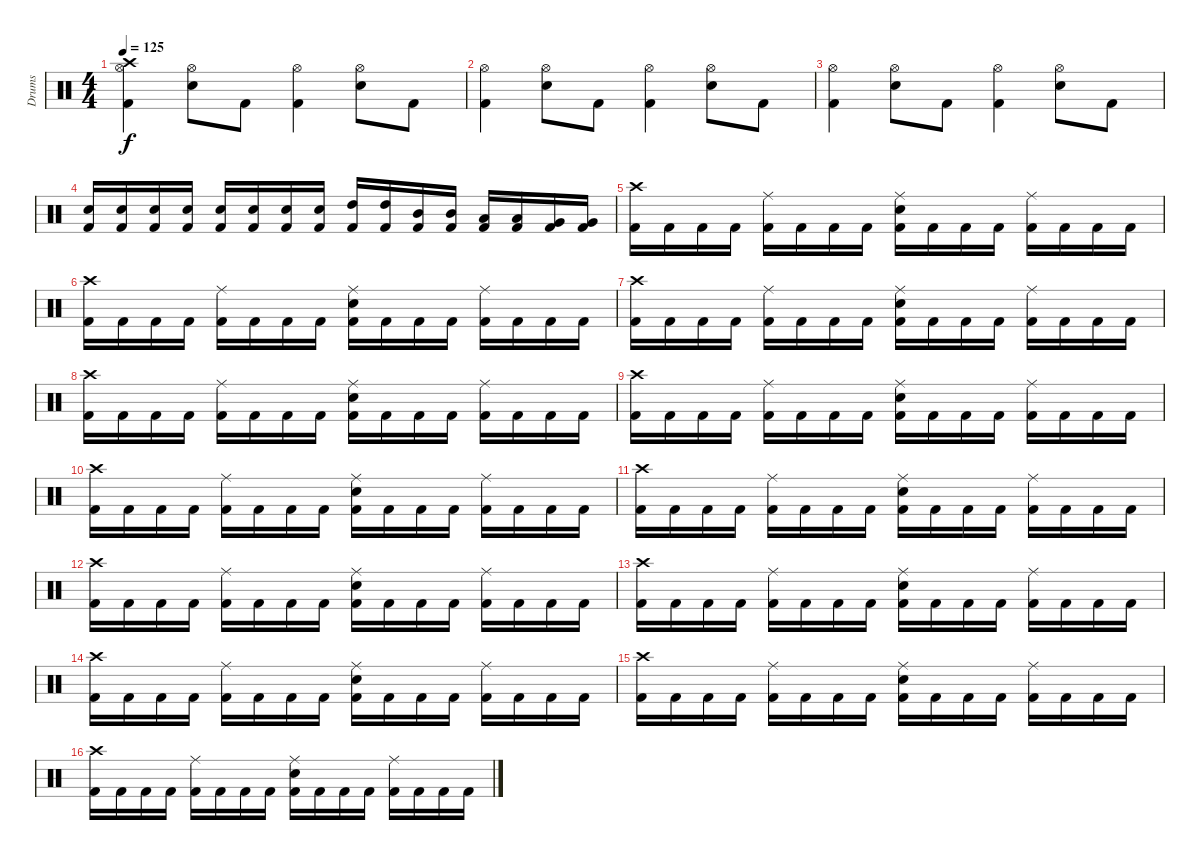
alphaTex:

\track ("Drums" "Drums") {instrument percussion}
\staff {score}
\articulation defaults
\ts (4 4)
\tempo 125
\clef neutral
\ks c
("Crash high (hit)" "Hi-Hat (open)" "Kick (hit) 2").4{dy f} ("Hi-Hat (open)" "Snare (hit) 2").8 "Kick (hit) 2".8 ("Hi-Hat (open)" "Kick (hit) 2").4 ("Hi-Hat (open)" "Snare (hit) 2").8 "Kick (hit) 2".8 |
("Hi-Hat (open)" "Kick (hit) 2").4 ("Hi-Hat (open)" "Snare (hit) 2").8 "Kick (hit) 2".8 ("Hi-Hat (open)" "Kick (hit) 2").4 ("Hi-Hat (open)" "Snare (hit) 2").8 "Kick (hit) 2".8 |
("Hi-Hat (open)" "Kick (hit) 2").4 ("Hi-Hat (open)" "Snare (hit) 2").8 "Kick (hit) 2".8 ("Hi-Hat (open)" "Kick (hit) 2").4 ("Hi-Hat (open)" "Snare (hit) 2").8 "Kick (hit) 2".8 |
("Snare (hit) 2" "Kick (hit) 2").16 ("Snare (hit) 2" "Kick (hit) 2").16 ("Snare (hit) 2" "Kick (hit) 2").16 ("Snare (hit) 2" "Kick (hit) 2").16 ("Snare (hit) 2" "Kick (hit) 2").16 ("Snare (hit) 2" "Kick (hit) 2").16 ("Snare (hit) 2" "Kick (hit) 2").16 ("Snare (hit) 2" "Kick (hit) 2").16 ("High Tom (hit)" "Kick (hit) 2").16 ("High Tom (hit)" "Kick (hit) 2").16 ("Mid Tom (hit)" "Kick (hit) 2").16 ("Mid Tom (hit)" "Kick (hit) 2").16 ("Low Tom (hit)" "Kick (hit) 2").16 ("Low Tom (hit)" "Kick (hit) 2").16 ("Very Low Tom (hit)" "Kick (hit) 2").16 ("Very Low Tom (hit)" "Kick (hit) 2").16 |
("Crash high (hit)" "Kick (hit) 2").16 "Kick (hit) 2".16 "Kick (hit) 2".16 "Kick (hit) 2".16 ("Ride (middle)" "Kick (hit) 2").16 "Kick (hit) 2".16 "Kick (hit) 2".16 "Kick (hit) 2".16 ("Ride (middle)" "Snare (hit) 2" "Kick (hit) 2").16 "Kick (hit) 2".16 "Kick (hit) 2".16 "Kick (hit) 2".16 ("Ride (middle)" "Kick (hit) 2").16 "Kick (hit) 2".16 "Kick (hit) 2".16 "Kick (hit) 2".16 |
("Crash high (hit)" "Kick (hit) 2").16 "Kick (hit) 2".16 "Kick (hit) 2".16 "Kick (hit) 2".16 ("Ride (middle)" "Kick (hit) 2").16 "Kick (hit) 2".16 "Kick (hit) 2".16 "Kick (hit) 2".16 ("Ride (middle)" "Snare (hit) 2" "Kick (hit) 2").16 "Kick (hit) 2".16 "Kick (hit) 2".16 "Kick (hit) 2".16 ("Ride (middle)" "Kick (hit) 2").16 "Kick (hit) 2".16 "Kick (hit) 2".16 "Kick (hit) 2".16 |
("Crash high (hit)" "Kick (hit) 2").16 "Kick (hit) 2".16 "Kick (hit) 2".16 "Kick (hit) 2".16 ("Ride (middle)" "Kick (hit) 2").16 "Kick (hit) 2".16 "Kick (hit) 2".16 "Kick (hit) 2".16 ("Ride (middle)" "Snare (hit) 2" "Kick (hit) 2").16 "Kick (hit) 2".16 "Kick (hit) 2".16 "Kick (hit) 2".16 ("Ride (middle)" "Kick (hit) 2").16 "Kick (hit) 2".16 "Kick (hit) 2".16 "Kick (hit) 2".16 |
("Crash high (hit)" "Kick (hit) 2").16 "Kick (hit) 2".16 "Kick (hit) 2".16 "Kick (hit) 2".16 ("Ride (middle)" "Kick (hit) 2").16 "Kick (hit) 2".16 "Kick (hit) 2".16 "Kick (hit) 2".16 ("Ride (middle)" "Snare (hit) 2" "Kick (hit) 2").16 "Kick (hit) 2".16 "Kick (hit) 2".16 "Kick (hit) 2".16 ("Ride (middle)" "Kick (hit) 2").16 "Kick (hit) 2".16 "Kick (hit) 2".16 "Kick (hit) 2".16 |
("Crash high (hit)" "Kick (hit) 2").16 "Kick (hit) 2".16 "Kick (hit) 2".16 "Kick (hit) 2".16 ("Ride (middle)" "Kick (hit) 2").16 "Kick (hit) 2".16 "Kick (hit) 2".16 "Kick (hit) 2".16 ("Ride (middle)" "Snare (hit) 2" "Kick (hit) 2").16 "Kick (hit) 2".16 "Kick (hit) 2".16 "Kick (hit) 2".16 ("Ride (middle)" "Kick (hit) 2").16 "Kick (hit) 2".16 "Kick (hit) 2".16 "Kick (hit) 2".16 |
("Crash high (hit)" "Kick (hit) 2").16 "Kick (hit) 2".16 "Kick (hit) 2".16 "Kick (hit) 2".16 ("Ride (middle)" "Kick (hit) 2").16 "Kick (hit) 2".16 "Kick (hit) 2".16 "Kick (hit) 2".16 ("Ride (middle)" "Snare (hit) 2" "Kick (hit) 2").16 "Kick (hit) 2".16 "Kick (hit) 2".16 "Kick (hit) 2".16 ("Ride (middle)" "Kick (hit) 2").16 "Kick (hit) 2".16 "Kick (hit) 2".16 "Kick (hit) 2".16 |
("Crash high (hit)" "Kick (hit) 2").16 "Kick (hit) 2".16 "Kick (hit) 2".16 "Kick (hit) 2".16 ("Ride (middle)" "Kick (hit) 2").16 "Kick (hit) 2".16 "Kick (hit) 2".16 "Kick (hit) 2".16 ("Ride (middle)" "Snare (hit) 2" "Kick (hit) 2").16 "Kick (hit) 2".16 "Kick (hit) 2".16 "Kick (hit) 2".16 ("Ride (middle)" "Kick (hit) 2").16 "Kick (hit) 2".16 "Kick (hit) 2".16 "Kick (hit) 2".16 |
("Crash high (hit)" "Kick (hit) 2").16 "Kick (hit) 2".16 "Kick (hit) 2".16 "Kick (hit) 2".16 ("Ride (middle)" "Kick (hit) 2").16 "Kick (hit) 2".16 "Kick (hit) 2".16 "Kick (hit) 2".16 ("Ride (middle)" "Snare (hit) 2" "Kick (hit) 2").16 "Kick (hit) 2".16 "Kick (hit) 2".16 "Kick (hit) 2".16 ("Ride (middle)" "Kick (hit) 2").16 "Kick (hit) 2".16 "Kick (hit) 2".16 "Kick (hit) 2".16 |
("Crash high (hit)" "Kick (hit) 2").16 "Kick (hit) 2".16 "Kick (hit) 2".16 "Kick (hit) 2".16 ("Ride (middle)" "Kick (hit) 2").16 "Kick (hit) 2".16 "Kick (hit) 2".16 "Kick (hit) 2".16 ("Ride (middle)" "Snare (hit) 2" "Kick (hit) 2").16 "Kick (hit) 2".16 "Kick (hit) 2".16 "Kick (hit) 2".16 ("Ride (middle)" "Kick (hit) 2").16 "Kick (hit) 2".16 "Kick (hit) 2".16 "Kick (hit) 2".16 |
("Crash high (hit)" "Kick (hit) 2").16 "Kick (hit) 2".16 "Kick (hit) 2".16 "Kick (hit) 2".16 ("Ride (middle)" "Kick (hit) 2").16 "Kick (hit) 2".16 "Kick (hit) 2".16 "Kick (hit) 2".16 ("Ride (middle)" "Snare (hit) 2" "Kick (hit) 2").16 "Kick (hit) 2".16 "Kick (hit) 2".16 "Kick (hit) 2".16 ("Ride (middle)" "Kick (hit) 2").16 "Kick (hit) 2".16 "Kick (hit) 2".16 "Kick (hit) 2".16 |
("Crash high (hit)" "Kick (hit) 2").16 "Kick (hit) 2".16 "Kick (hit) 2".16 "Kick (hit) 2".16 ("Ride (middle)" "Kick (hit) 2").16 "Kick (hit) 2".16 "Kick (hit) 2".16 "Kick (hit) 2".16 ("Ride (middle)" "Snare (hit) 2" "Kick (hit) 2").16 "Kick (hit) 2".16 "Kick (hit) 2".16 "Kick (hit) 2".16 ("Ride (middle)" "Kick (hit) 2").16 "Kick (hit) 2".16 "Kick (hit) 2".16 "Kick (hit) 2".16 |
("Crash high (hit)" "Kick (hit) 2").16 "Kick (hit) 2".16 "Kick (hit) 2".16 "Kick (hit) 2".16 ("Ride (middle)" "Kick (hit) 2").16 "Kick (hit) 2".16 "Kick (hit) 2".16 "Kick (hit) 2".16 ("Ride (middle)" "Snare (hit) 2" "Kick (hit) 2").16 "Kick (hit) 2".16 "Kick (hit) 2".16 "Kick (hit) 2".16 ("Ride (middle)" "Kick (hit) 2").16 "Kick (hit) 2".16 "Kick (hit) 2".16 "Kick (hit) 2".16
